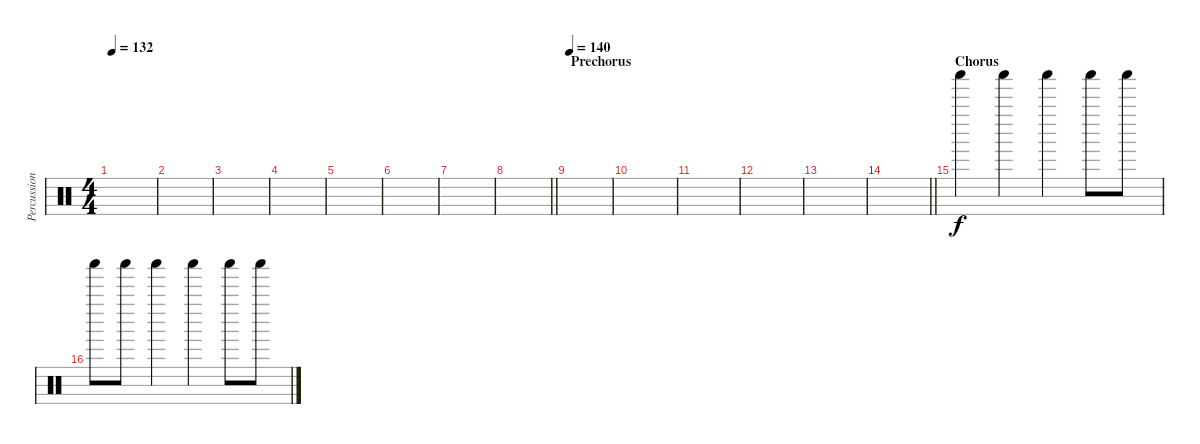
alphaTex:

\track ("Percussion" "Percussion") {instrument percussion}
\staff {score}
\articulation defaults
\ts (4 4)
\tempo 132
\clef neutral
\ks c
|
|
|
|
|
|
|
\barLineRight lightlight
|
\section ("" "Prechorus")
\tempo 140
|
|
|
|
|
\barLineRight lightlight
|
\section ("" "Chorus")
"Shaker (hit)".4{volume 8} "Shaker (hit)".4 "Shaker (hit)".4 "Shaker (hit)".8 "Shaker (hit)".8 |
"Shaker (hit)".8 "Shaker (hit)".8 "Shaker (hit)".4 "Shaker (hit)".4 "Shaker (hit)".8 "Shaker (hit)".8
